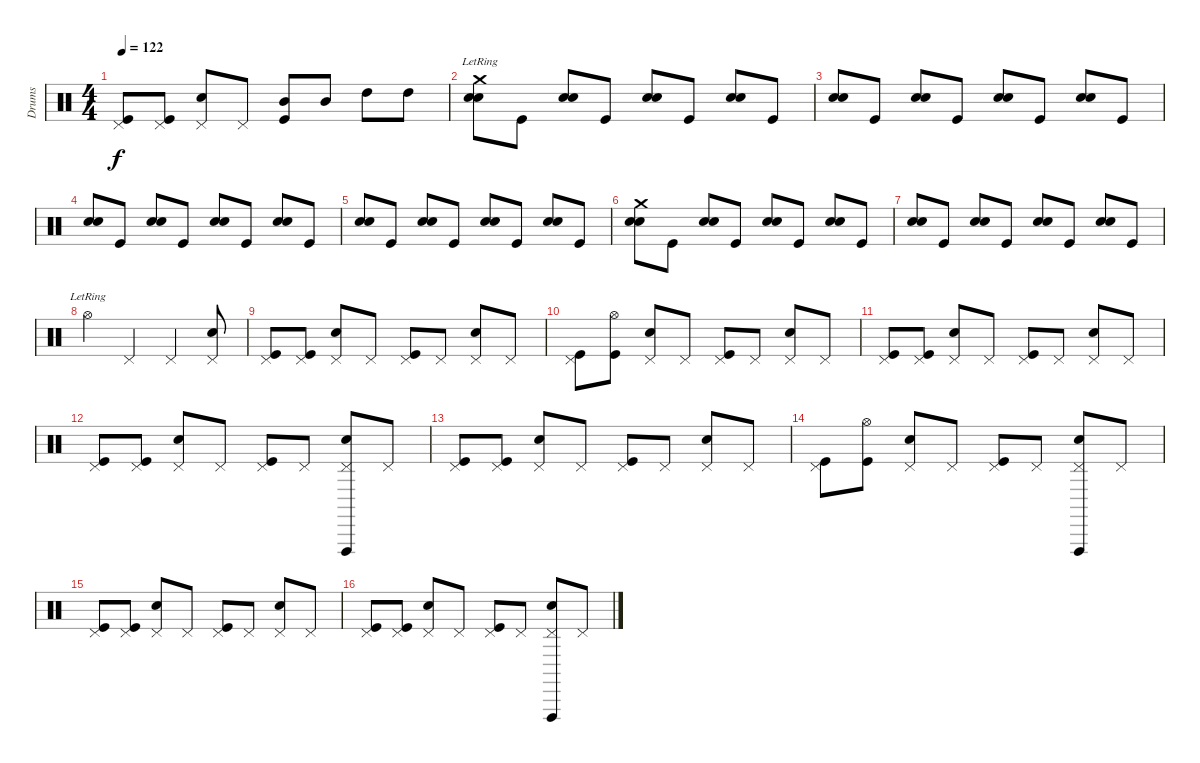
\track ("Drums" "Drums") {instrument percussion}
\staff {score}
\articulation defaults
\ts (4 4)
\tempo 122
\clef neutral
\ks c
("Pedal Hi-Hat (hit)" "Kick (hit)").8{dy f} ("Pedal Hi-Hat (hit)" "Kick (hit)").8 ("Pedal Hi-Hat (hit)" "Snare (hit) 2").8 "Pedal Hi-Hat (hit)".8 ("Mid Tom (hit)" "Kick (hit)").8 "Mid Tom (hit)".8 "High Tom (hit)".8 "High Tom (hit)".8 |
("Snare (hit) 2" "Snare (hit) 2" "Crash medium (hit)"{lr}).8 "Kick (hit)".8 ("Snare (hit) 2" "Snare (hit) 2").8 "Kick (hit)".8 ("Snare (hit) 2" "Snare (hit) 2").8 "Kick (hit)".8 ("Snare (hit) 2" "Snare (hit) 2").8 "Kick (hit)".8 |
("Snare (hit) 2" "Snare (hit) 2").8 "Kick (hit)".8 ("Snare (hit) 2" "Snare (hit) 2").8 "Kick (hit)".8 ("Snare (hit) 2" "Snare (hit) 2").8 "Kick (hit)".8 ("Snare (hit) 2" "Snare (hit) 2").8 "Kick (hit)".8 |
("Snare (hit) 2" "Snare (hit) 2").8 "Kick (hit)".8 ("Snare (hit) 2" "Snare (hit) 2").8 "Kick (hit)".8 ("Snare (hit) 2" "Snare (hit) 2").8 "Kick (hit)".8 ("Snare (hit) 2" "Snare (hit) 2").8 "Kick (hit)".8 |
("Snare (hit) 2" "Snare (hit) 2").8 "Kick (hit)".8 ("Snare (hit) 2" "Snare (hit) 2").8 "Kick (hit)".8 ("Snare (hit) 2" "Snare (hit) 2").8 "Kick (hit)".8 ("Snare (hit) 2" "Snare (hit) 2").8 "Kick (hit)".8 |
("Snare (hit) 2" "Snare (hit) 2" "Crash medium (hit)").8 "Kick (hit)".8 ("Snare (hit) 2" "Snare (hit) 2").8 "Kick (hit)".8 ("Snare (hit) 2" "Snare (hit) 2").8 "Kick (hit)".8 ("Snare (hit) 2" "Snare (hit) 2").8 "Kick (hit)".8 |
("Snare (hit) 2" "Snare (hit) 2").8 "Kick (hit)".8 ("Snare (hit) 2" "Snare (hit) 2").8 "Kick (hit)".8 ("Snare (hit) 2" "Snare (hit) 2").8 "Kick (hit)".8 ("Snare (hit) 2" "Snare (hit) 2").8 "Kick (hit)".8 |
"Hi-Hat (open)"{lr}.4 "Pedal Hi-Hat (hit)".4 "Pedal Hi-Hat (hit)".4 ("Pedal Hi-Hat (hit)" "Snare (hit) 2").8 |
("Pedal Hi-Hat (hit)" "Kick (hit)").8 ("Pedal Hi-Hat (hit)" "Kick (hit)").8 ("Pedal Hi-Hat (hit)" "Snare (hit) 2").8 "Pedal Hi-Hat (hit)".8 ("Pedal Hi-Hat (hit)" "Kick (hit)").8 "Pedal Hi-Hat (hit)".8 ("Pedal Hi-Hat (hit)" "Snare (hit) 2").8 "Pedal Hi-Hat (hit)".8 |
("Pedal Hi-Hat (hit)" "Kick (hit)").8 ("Hi-Hat (open)" "Kick (hit)").8 ("Pedal Hi-Hat (hit)" "Snare (hit) 2").8 "Pedal Hi-Hat (hit)".8 ("Pedal Hi-Hat (hit)" "Kick (hit)").8 "Pedal Hi-Hat (hit)".8 ("Pedal Hi-Hat (hit)" "Snare (hit) 2").8 "Pedal Hi-Hat (hit)".8 |
("Pedal Hi-Hat (hit)" "Kick (hit)").8 ("Pedal Hi-Hat (hit)" "Kick (hit)").8 ("Pedal Hi-Hat (hit)" "Snare (hit) 2").8 "Pedal Hi-Hat (hit)".8 ("Pedal Hi-Hat (hit)" "Kick (hit)").8 "Pedal Hi-Hat (hit)".8 ("Pedal Hi-Hat (hit)" "Snare (hit) 2").8 "Pedal Hi-Hat (hit)".8 |
("Pedal Hi-Hat (hit)" "Kick (hit)").8 ("Pedal Hi-Hat (hit)" "Kick (hit)").8 ("Pedal Hi-Hat (hit)" "Snare (hit) 2").8 "Pedal Hi-Hat (hit)".8 ("Pedal Hi-Hat (hit)" "Kick (hit)").8 "Pedal Hi-Hat (hit)".8 ("Pedal Hi-Hat (hit)" "Snare (hit) 2" "Vibraslap (hit)").8 "Pedal Hi-Hat (hit)".8 |
("Pedal Hi-Hat (hit)" "Kick (hit)").8 ("Pedal Hi-Hat (hit)" "Kick (hit)").8 ("Pedal Hi-Hat (hit)" "Snare (hit) 2").8 "Pedal Hi-Hat (hit)".8 ("Pedal Hi-Hat (hit)" "Kick (hit)").8 "Pedal Hi-Hat (hit)".8 ("Pedal Hi-Hat (hit)" "Snare (hit) 2").8 "Pedal Hi-Hat (hit)".8 |
("Pedal Hi-Hat (hit)" "Kick (hit)").8 ("Hi-Hat (open)" "Kick (hit)").8 ("Pedal Hi-Hat (hit)" "Snare (hit) 2").8 "Pedal Hi-Hat (hit)".8 ("Pedal Hi-Hat (hit)" "Kick (hit)").8 "Pedal Hi-Hat (hit)".8 ("Pedal Hi-Hat (hit)" "Snare (hit) 2" "Vibraslap (hit)").8 "Pedal Hi-Hat (hit)".8 |
("Pedal Hi-Hat (hit)" "Kick (hit)").8 ("Pedal Hi-Hat (hit)" "Kick (hit)").8 ("Pedal Hi-Hat (hit)" "Snare (hit) 2").8 "Pedal Hi-Hat (hit)".8 ("Pedal Hi-Hat (hit)" "Kick (hit)").8 "Pedal Hi-Hat (hit)".8 ("Pedal Hi-Hat (hit)" "Snare (hit) 2").8 "Pedal Hi-Hat (hit)".8 |
("Pedal Hi-Hat (hit)" "Kick (hit)").8 ("Pedal Hi-Hat (hit)" "Kick (hit)").8 ("Pedal Hi-Hat (hit)" "Snare (hit) 2").8 "Pedal Hi-Hat (hit)".8 ("Pedal Hi-Hat (hit)" "Kick (hit)").8 "Pedal Hi-Hat (hit)".8 ("Pedal Hi-Hat (hit)" "Snare (hit) 2" "Vibraslap (hit)").8 "Pedal Hi-Hat (hit)".8
